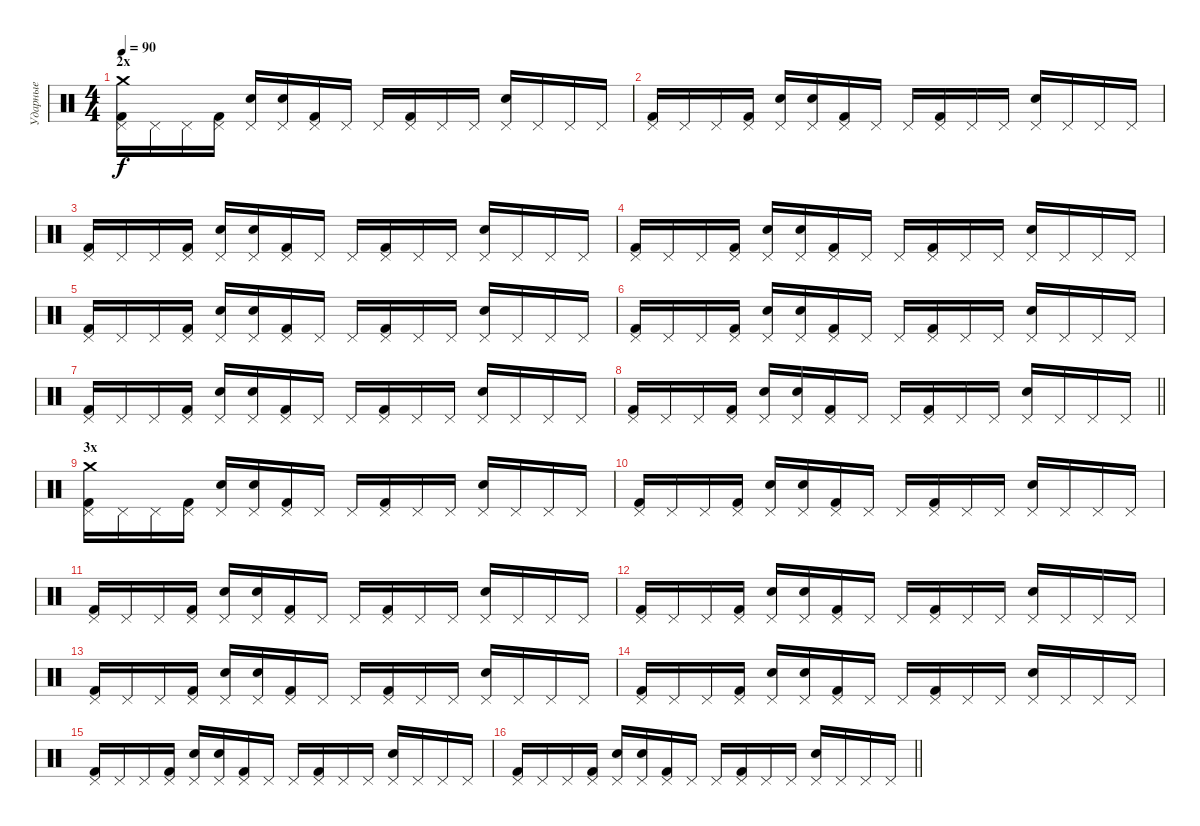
\track ("Ударные" "Ударные") {instrument percussion}
\staff {score}
\articulation defaults
\ts (4 4)
\section ("" "2х")
\tempo 90
\clef neutral
\ks c
("Pedal Hi-Hat (hit)" "Kick (hit) 2" "Crash medium (hit)").16{dy f} "Pedal Hi-Hat (hit)".16 "Pedal Hi-Hat (hit)".16 ("Pedal Hi-Hat (hit)" "Kick (hit) 2").16 ("Pedal Hi-Hat (hit)" "Electric Snare (hit)").16 ("Pedal Hi-Hat (hit)" "Electric Snare (hit)").16 ("Pedal Hi-Hat (hit)" "Kick (hit) 2").16 "Pedal Hi-Hat (hit)".16 "Pedal Hi-Hat (hit)".16 ("Pedal Hi-Hat (hit)" "Kick (hit) 2").16 "Pedal Hi-Hat (hit)".16 "Pedal Hi-Hat (hit)".16 ("Pedal Hi-Hat (hit)" "Electric Snare (hit)").16 "Pedal Hi-Hat (hit)".16 "Pedal Hi-Hat (hit)".16 "Pedal Hi-Hat (hit)".16 |
("Pedal Hi-Hat (hit)" "Kick (hit) 2").16 "Pedal Hi-Hat (hit)".16 "Pedal Hi-Hat (hit)".16 ("Pedal Hi-Hat (hit)" "Kick (hit) 2").16 ("Pedal Hi-Hat (hit)" "Electric Snare (hit)").16 ("Pedal Hi-Hat (hit)" "Electric Snare (hit)").16 ("Pedal Hi-Hat (hit)" "Kick (hit) 2").16 "Pedal Hi-Hat (hit)".16 "Pedal Hi-Hat (hit)".16 ("Pedal Hi-Hat (hit)" "Kick (hit) 2").16 "Pedal Hi-Hat (hit)".16 "Pedal Hi-Hat (hit)".16 ("Pedal Hi-Hat (hit)" "Electric Snare (hit)").16 "Pedal Hi-Hat (hit)".16 "Pedal Hi-Hat (hit)".16 "Pedal Hi-Hat (hit)".16 |
("Pedal Hi-Hat (hit)" "Kick (hit) 2").16 "Pedal Hi-Hat (hit)".16 "Pedal Hi-Hat (hit)".16 ("Pedal Hi-Hat (hit)" "Kick (hit) 2").16 ("Pedal Hi-Hat (hit)" "Electric Snare (hit)").16 ("Pedal Hi-Hat (hit)" "Electric Snare (hit)").16 ("Pedal Hi-Hat (hit)" "Kick (hit) 2").16 "Pedal Hi-Hat (hit)".16 "Pedal Hi-Hat (hit)".16 ("Pedal Hi-Hat (hit)" "Kick (hit) 2").16 "Pedal Hi-Hat (hit)".16 "Pedal Hi-Hat (hit)".16 ("Pedal Hi-Hat (hit)" "Electric Snare (hit)").16 "Pedal Hi-Hat (hit)".16 "Pedal Hi-Hat (hit)".16 "Pedal Hi-Hat (hit)".16 |
("Pedal Hi-Hat (hit)" "Kick (hit) 2").16 "Pedal Hi-Hat (hit)".16 "Pedal Hi-Hat (hit)".16 ("Pedal Hi-Hat (hit)" "Kick (hit) 2").16 ("Pedal Hi-Hat (hit)" "Electric Snare (hit)").16 ("Pedal Hi-Hat (hit)" "Electric Snare (hit)").16 ("Pedal Hi-Hat (hit)" "Kick (hit) 2").16 "Pedal Hi-Hat (hit)".16 "Pedal Hi-Hat (hit)".16 ("Pedal Hi-Hat (hit)" "Kick (hit) 2").16 "Pedal Hi-Hat (hit)".16 "Pedal Hi-Hat (hit)".16 ("Pedal Hi-Hat (hit)" "Electric Snare (hit)").16 "Pedal Hi-Hat (hit)".16 "Pedal Hi-Hat (hit)".16 "Pedal Hi-Hat (hit)".16 |
("Pedal Hi-Hat (hit)" "Kick (hit) 2").16 "Pedal Hi-Hat (hit)".16 "Pedal Hi-Hat (hit)".16 ("Pedal Hi-Hat (hit)" "Kick (hit) 2").16 ("Pedal Hi-Hat (hit)" "Electric Snare (hit)").16 ("Pedal Hi-Hat (hit)" "Electric Snare (hit)").16 ("Pedal Hi-Hat (hit)" "Kick (hit) 2").16 "Pedal Hi-Hat (hit)".16 "Pedal Hi-Hat (hit)".16 ("Pedal Hi-Hat (hit)" "Kick (hit) 2").16 "Pedal Hi-Hat (hit)".16 "Pedal Hi-Hat (hit)".16 ("Pedal Hi-Hat (hit)" "Electric Snare (hit)").16 "Pedal Hi-Hat (hit)".16 "Pedal Hi-Hat (hit)".16 "Pedal Hi-Hat (hit)".16 |
("Pedal Hi-Hat (hit)" "Kick (hit) 2").16 "Pedal Hi-Hat (hit)".16 "Pedal Hi-Hat (hit)".16 ("Pedal Hi-Hat (hit)" "Kick (hit) 2").16 ("Pedal Hi-Hat (hit)" "Electric Snare (hit)").16 ("Pedal Hi-Hat (hit)" "Electric Snare (hit)").16 ("Pedal Hi-Hat (hit)" "Kick (hit) 2").16 "Pedal Hi-Hat (hit)".16 "Pedal Hi-Hat (hit)".16 ("Pedal Hi-Hat (hit)" "Kick (hit) 2").16 "Pedal Hi-Hat (hit)".16 "Pedal Hi-Hat (hit)".16 ("Pedal Hi-Hat (hit)" "Electric Snare (hit)").16 "Pedal Hi-Hat (hit)".16 "Pedal Hi-Hat (hit)".16 "Pedal Hi-Hat (hit)".16 |
("Pedal Hi-Hat (hit)" "Kick (hit) 2").16 "Pedal Hi-Hat (hit)".16 "Pedal Hi-Hat (hit)".16 ("Pedal Hi-Hat (hit)" "Kick (hit) 2").16 ("Pedal Hi-Hat (hit)" "Electric Snare (hit)").16 ("Pedal Hi-Hat (hit)" "Electric Snare (hit)").16 ("Pedal Hi-Hat (hit)" "Kick (hit) 2").16 "Pedal Hi-Hat (hit)".16 "Pedal Hi-Hat (hit)".16 ("Pedal Hi-Hat (hit)" "Kick (hit) 2").16 "Pedal Hi-Hat (hit)".16 "Pedal Hi-Hat (hit)".16 ("Pedal Hi-Hat (hit)" "Electric Snare (hit)").16 "Pedal Hi-Hat (hit)".16 "Pedal Hi-Hat (hit)".16 "Pedal Hi-Hat (hit)".16 |
\barLineRight lightlight
("Pedal Hi-Hat (hit)" "Kick (hit) 2").16 "Pedal Hi-Hat (hit)".16 "Pedal Hi-Hat (hit)".16 ("Pedal Hi-Hat (hit)" "Kick (hit) 2").16 ("Pedal Hi-Hat (hit)" "Electric Snare (hit)").16 ("Pedal Hi-Hat (hit)" "Electric Snare (hit)").16 ("Pedal Hi-Hat (hit)" "Kick (hit) 2").16 "Pedal Hi-Hat (hit)".16 "Pedal Hi-Hat (hit)".16 ("Pedal Hi-Hat (hit)" "Kick (hit) 2").16 "Pedal Hi-Hat (hit)".16 "Pedal Hi-Hat (hit)".16 ("Pedal Hi-Hat (hit)" "Electric Snare (hit)").16 "Pedal Hi-Hat (hit)".16 "Pedal Hi-Hat (hit)".16 "Pedal Hi-Hat (hit)".16 |
\section ("" "3х")
("Pedal Hi-Hat (hit)" "Kick (hit) 2" "Crash medium (hit)").16 "Pedal Hi-Hat (hit)".16 "Pedal Hi-Hat (hit)".16 ("Pedal Hi-Hat (hit)" "Kick (hit) 2").16 ("Pedal Hi-Hat (hit)" "Electric Snare (hit)").16 ("Pedal Hi-Hat (hit)" "Electric Snare (hit)").16 ("Pedal Hi-Hat (hit)" "Kick (hit) 2").16 "Pedal Hi-Hat (hit)".16 "Pedal Hi-Hat (hit)".16 ("Pedal Hi-Hat (hit)" "Kick (hit) 2").16 "Pedal Hi-Hat (hit)".16 "Pedal Hi-Hat (hit)".16 ("Pedal Hi-Hat (hit)" "Electric Snare (hit)").16 "Pedal Hi-Hat (hit)".16 "Pedal Hi-Hat (hit)".16 "Pedal Hi-Hat (hit)".16 |
("Pedal Hi-Hat (hit)" "Kick (hit) 2").16 "Pedal Hi-Hat (hit)".16 "Pedal Hi-Hat (hit)".16 ("Pedal Hi-Hat (hit)" "Kick (hit) 2").16 ("Pedal Hi-Hat (hit)" "Electric Snare (hit)").16 ("Pedal Hi-Hat (hit)" "Electric Snare (hit)").16 ("Pedal Hi-Hat (hit)" "Kick (hit) 2").16 "Pedal Hi-Hat (hit)".16 "Pedal Hi-Hat (hit)".16 ("Pedal Hi-Hat (hit)" "Kick (hit) 2").16 "Pedal Hi-Hat (hit)".16 "Pedal Hi-Hat (hit)".16 ("Pedal Hi-Hat (hit)" "Electric Snare (hit)").16 "Pedal Hi-Hat (hit)".16 "Pedal Hi-Hat (hit)".16 "Pedal Hi-Hat (hit)".16 |
("Pedal Hi-Hat (hit)" "Kick (hit) 2").16 "Pedal Hi-Hat (hit)".16 "Pedal Hi-Hat (hit)".16 ("Pedal Hi-Hat (hit)" "Kick (hit) 2").16 ("Pedal Hi-Hat (hit)" "Electric Snare (hit)").16 ("Pedal Hi-Hat (hit)" "Electric Snare (hit)").16 ("Pedal Hi-Hat (hit)" "Kick (hit) 2").16 "Pedal Hi-Hat (hit)".16 "Pedal Hi-Hat (hit)".16 ("Pedal Hi-Hat (hit)" "Kick (hit) 2").16 "Pedal Hi-Hat (hit)".16 "Pedal Hi-Hat (hit)".16 ("Pedal Hi-Hat (hit)" "Electric Snare (hit)").16 "Pedal Hi-Hat (hit)".16 "Pedal Hi-Hat (hit)".16 "Pedal Hi-Hat (hit)".16 |
("Pedal Hi-Hat (hit)" "Kick (hit) 2").16 "Pedal Hi-Hat (hit)".16 "Pedal Hi-Hat (hit)".16 ("Pedal Hi-Hat (hit)" "Kick (hit) 2").16 ("Pedal Hi-Hat (hit)" "Electric Snare (hit)").16 ("Pedal Hi-Hat (hit)" "Electric Snare (hit)").16 ("Pedal Hi-Hat (hit)" "Kick (hit) 2").16 "Pedal Hi-Hat (hit)".16 "Pedal Hi-Hat (hit)".16 ("Pedal Hi-Hat (hit)" "Kick (hit) 2").16 "Pedal Hi-Hat (hit)".16 "Pedal Hi-Hat (hit)".16 ("Pedal Hi-Hat (hit)" "Electric Snare (hit)").16 "Pedal Hi-Hat (hit)".16 "Pedal Hi-Hat (hit)".16 "Pedal Hi-Hat (hit)".16 |
("Pedal Hi-Hat (hit)" "Kick (hit) 2").16 "Pedal Hi-Hat (hit)".16 "Pedal Hi-Hat (hit)".16 ("Pedal Hi-Hat (hit)" "Kick (hit) 2").16 ("Pedal Hi-Hat (hit)" "Electric Snare (hit)").16 ("Pedal Hi-Hat (hit)" "Electric Snare (hit)").16 ("Pedal Hi-Hat (hit)" "Kick (hit) 2").16 "Pedal Hi-Hat (hit)".16 "Pedal Hi-Hat (hit)".16 ("Pedal Hi-Hat (hit)" "Kick (hit) 2").16 "Pedal Hi-Hat (hit)".16 "Pedal Hi-Hat (hit)".16 ("Pedal Hi-Hat (hit)" "Electric Snare (hit)").16 "Pedal Hi-Hat (hit)".16 "Pedal Hi-Hat (hit)".16 "Pedal Hi-Hat (hit)".16 |
("Pedal Hi-Hat (hit)" "Kick (hit) 2").16 "Pedal Hi-Hat (hit)".16 "Pedal Hi-Hat (hit)".16 ("Pedal Hi-Hat (hit)" "Kick (hit) 2").16 ("Pedal Hi-Hat (hit)" "Electric Snare (hit)").16 ("Pedal Hi-Hat (hit)" "Electric Snare (hit)").16 ("Pedal Hi-Hat (hit)" "Kick (hit) 2").16 "Pedal Hi-Hat (hit)".16 "Pedal Hi-Hat (hit)".16 ("Pedal Hi-Hat (hit)" "Kick (hit) 2").16 "Pedal Hi-Hat (hit)".16 "Pedal Hi-Hat (hit)".16 ("Pedal Hi-Hat (hit)" "Electric Snare (hit)").16 "Pedal Hi-Hat (hit)".16 "Pedal Hi-Hat (hit)".16 "Pedal Hi-Hat (hit)".16 |
("Pedal Hi-Hat (hit)" "Kick (hit) 2").16 "Pedal Hi-Hat (hit)".16 "Pedal Hi-Hat (hit)".16 ("Pedal Hi-Hat (hit)" "Kick (hit) 2").16 ("Pedal Hi-Hat (hit)" "Electric Snare (hit)").16 ("Pedal Hi-Hat (hit)" "Electric Snare (hit)").16 ("Pedal Hi-Hat (hit)" "Kick (hit) 2").16 "Pedal Hi-Hat (hit)".16 "Pedal Hi-Hat (hit)".16 ("Pedal Hi-Hat (hit)" "Kick (hit) 2").16 "Pedal Hi-Hat (hit)".16 "Pedal Hi-Hat (hit)".16 ("Pedal Hi-Hat (hit)" "Electric Snare (hit)").16 "Pedal Hi-Hat (hit)".16 "Pedal Hi-Hat (hit)".16 "Pedal Hi-Hat (hit)".16 |
\barLineRight lightlight
("Pedal Hi-Hat (hit)" "Kick (hit) 2").16 "Pedal Hi-Hat (hit)".16 "Pedal Hi-Hat (hit)".16 ("Pedal Hi-Hat (hit)" "Kick (hit) 2").16 ("Pedal Hi-Hat (hit)" "Electric Snare (hit)").16 ("Pedal Hi-Hat (hit)" "Electric Snare (hit)").16 ("Pedal Hi-Hat (hit)" "Kick (hit) 2").16 "Pedal Hi-Hat (hit)".16 "Pedal Hi-Hat (hit)".16 ("Pedal Hi-Hat (hit)" "Kick (hit) 2").16 "Pedal Hi-Hat (hit)".16 "Pedal Hi-Hat (hit)".16 ("Pedal Hi-Hat (hit)" "Electric Snare (hit)").16 "Pedal Hi-Hat (hit)".16 "Pedal Hi-Hat (hit)".16 "Pedal Hi-Hat (hit)".16
